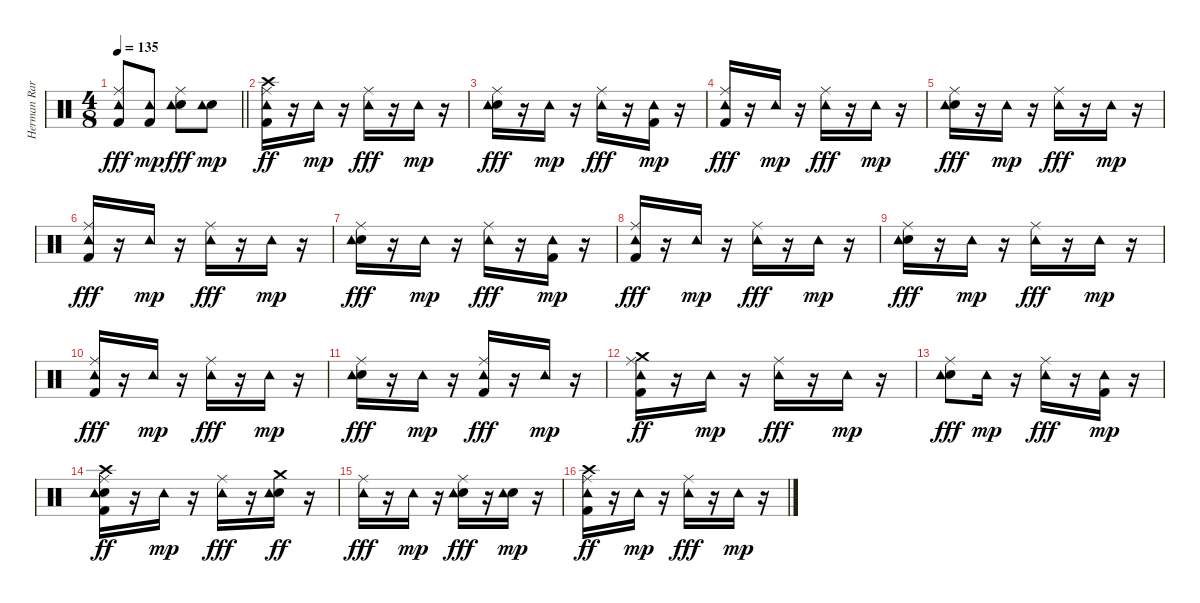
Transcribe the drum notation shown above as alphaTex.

\track ("Herman Rarebell" "Herman Rar") {instrument percussion}
\staff {score}
\articulation defaults
\ts (4 8)
\tempo 135
\clef neutral
\barLineRight lightlight
\ks c
("Kick (hit) 2" "Ride (middle)" "Tambourine (hit)").8{dy fff} ("Kick (hit) 2" "Tambourine (hit)").8{dy mp} ("Snare (hit) 2" "Ride (middle)" "Tambourine (hit)").8{dy fff} ("Snare (hit) 2" "Tambourine (hit)").8{dy mp} |
\section ("" "")
("Kick (hit) 2" "Ride (middle)" "Tambourine (hit)" "Crash high (hit)").16{dy ff} r.16 "Tambourine (hit)".16{dy mp} r.16 ("Ride (middle)" "Tambourine (hit)").16{dy fff} r.16 "Tambourine (hit)".16{dy mp} r.16 |
("Snare (hit) 2" "Ride (middle)" "Tambourine (hit)").16{dy fff} r.16 "Tambourine (hit)".16{dy mp} r.16 ("Ride (middle)" "Tambourine (hit)").16{dy fff} r.16 ("Kick (hit) 2" "Tambourine (hit)").16{dy mp} r.16 |
("Kick (hit) 2" "Ride (middle)" "Tambourine (hit)").16{dy fff} r.16 "Tambourine (hit)".16{dy mp} r.16 ("Ride (middle)" "Tambourine (hit)").16{dy fff} r.16 "Tambourine (hit)".16{dy mp} r.16 |
("Snare (hit) 2" "Ride (middle)" "Tambourine (hit)").16{dy fff} r.16 "Tambourine (hit)".16{dy mp} r.16 ("Ride (middle)" "Tambourine (hit)").16{dy fff} r.16 "Tambourine (hit)".16{dy mp} r.16 |
("Kick (hit) 2" "Ride (middle)" "Tambourine (hit)").16{dy fff} r.16 "Tambourine (hit)".16{dy mp} r.16 ("Ride (middle)" "Tambourine (hit)").16{dy fff} r.16 "Tambourine (hit)".16{dy mp} r.16 |
("Snare (hit) 2" "Ride (middle)" "Tambourine (hit)").16{dy fff} r.16 "Tambourine (hit)".16{dy mp} r.16 ("Ride (middle)" "Tambourine (hit)").16{dy fff} r.16 ("Kick (hit) 2" "Tambourine (hit)").16{dy mp} r.16 |
("Kick (hit) 2" "Ride (middle)" "Tambourine (hit)").16{dy fff} r.16 "Tambourine (hit)".16{dy mp} r.16 ("Ride (middle)" "Tambourine (hit)").16{dy fff} r.16 "Tambourine (hit)".16{dy mp} r.16 |
("Snare (hit) 2" "Ride (middle)" "Tambourine (hit)").16{dy fff} r.16 "Tambourine (hit)".16{dy mp} r.16 ("Ride (middle)" "Tambourine (hit)").16{dy fff} r.16 "Tambourine (hit)".16{dy mp} r.16 |
("Kick (hit) 2" "Ride (middle)" "Tambourine (hit)").16{dy fff} r.16 "Tambourine (hit)".16{dy mp} r.16 ("Ride (middle)" "Tambourine (hit)").16{dy fff} r.16 "Tambourine (hit)".16{dy mp} r.16 |
("Snare (hit) 2" "Ride (middle)" "Tambourine (hit)").16{dy fff} r.16 "Tambourine (hit)".16{dy mp} r.16 ("Kick (hit) 2" "Ride (middle)" "Tambourine (hit)").16{dy fff} r.16 "Tambourine (hit)".16{dy mp} r.16 |
("Kick (hit) 2" "Ride (middle)" "Tambourine (hit)" "Crash medium (hit)").16{dy ff} r.16 "Tambourine (hit)".16{dy mp} r.16 ("Ride (middle)" "Tambourine (hit)").16{dy fff} r.16 "Tambourine (hit)".16{dy mp} r.16 |
("Snare (hit) 2" "Ride (middle)" "Tambourine (hit)").8{dy fff} "Tambourine (hit)".16{dy mp} r.16 ("Ride (middle)" "Tambourine (hit)").16{dy fff} r.16 ("Kick (hit) 2" "Tambourine (hit)").16{dy mp} r.16 |
("Kick (hit) 2" "Snare (hit) 2" "Ride (middle)" "Tambourine (hit)" "Crash high (hit)").16{dy ff} r.16 "Tambourine (hit)".16{dy mp} r.16 ("Ride (middle)" "Tambourine (hit)").16{dy fff} r.16 ("Snare (hit) 2" "Tambourine (hit)" "Crash medium (hit)").16{dy ff} r.16 |
("Ride (middle)" "Tambourine (hit)").16{dy fff} r.16 "Tambourine (hit)".16{dy mp} r.16 ("Snare (hit) 2" "Ride (middle)" "Tambourine (hit)").16{dy fff} r.16 ("Snare (hit) 2" "Tambourine (hit)").16{dy mp} r.16 |
("Kick (hit) 2" "Ride (middle)" "Tambourine (hit)" "Crash high (hit)").16{dy ff} r.16 "Tambourine (hit)".16{dy mp} r.16 ("Ride (middle)" "Tambourine (hit)").16{dy fff} r.16 "Tambourine (hit)".16{dy mp} r.16
